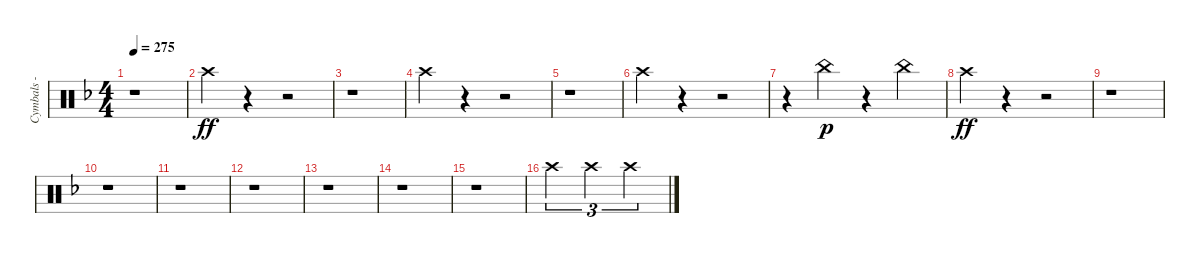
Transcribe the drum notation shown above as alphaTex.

\track ("Cymbals - crash" "Cymbals - ") {instrument percussion}
\staff {score}
\articulation defaults
\ts (4 4)
\tempo 275
\clef neutral
\ks dminor
r.1{dy ff} |
"Crash high (hit)".4 r.4 r.2 |
r.1 |
"Crash high (hit)".4 r.4 r.2 |
r.1 |
"Crash high (hit)".4 r.4 r.2 |
r.4 "China (hit)".4{dy p} r.4 "China (hit)".4 |
"Crash high (hit)".4{dy ff} r.4 r.2 |
r.1 |
r.1 |
r.1 |
r.1 |
r.1 |
r.1 |
r.1 |
"Crash high (hit)".2{tu (3 2) volume 3} "Crash high (hit)".2{tu (3 2)} "Crash high (hit)".2{tu (3 2)}
